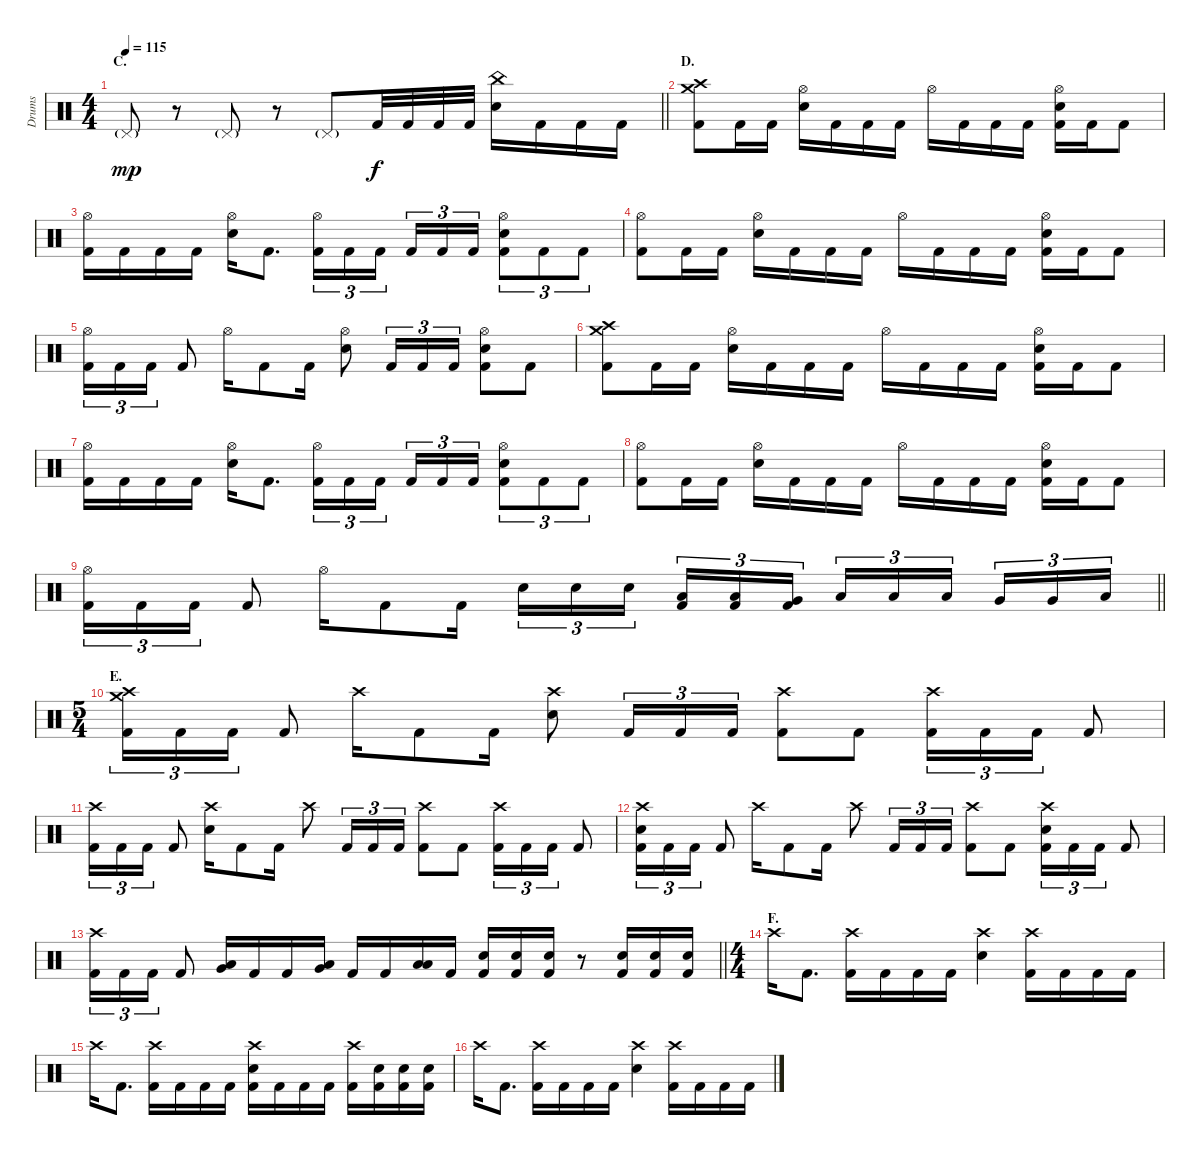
\track ("Drums" "Drums") {instrument percussion}
\staff {score}
\articulation defaults
\ts (4 4)
\section ("" "C.")
\tempo 115
\clef neutral
\barLineRight lightlight
\ks c "Pedal Hi-Hat (hit)"{g}.8{dy mp}
r.8 "Pedal Hi-Hat (hit)"{g}.8 r.8 "Pedal Hi-Hat (hit)"{g}.8 "Kick (hit) 2".32{dy f} "Kick (hit) 2".32 "Kick (hit) 2".32 "Kick (hit) 2".32 ("China (hit)" "Electric Snare (hit)").16 "Kick (hit) 2".16 "Kick (hit) 2".16 "Kick (hit) 2".16 |
\section ("" "D.")
("Crash medium (hit)" "Crash high (hit)" "Kick (hit) 2").8 "Kick (hit) 2".16 "Kick (hit) 2".16 ("Hi-Hat (open)" "Electric Snare (hit)").16 "Kick (hit) 2".16 "Kick (hit) 2".16 "Kick (hit) 2".16 "Hi-Hat (open)".16 "Kick (hit) 2".16 "Kick (hit) 2".16 "Kick (hit) 2".16 ("Hi-Hat (open)" "Electric Snare (hit)" "Kick (hit) 2").16 "Kick (hit) 2".16 "Kick (hit) 2".8 |
("Hi-Hat (open)" "Kick (hit) 2").16 "Kick (hit) 2".16 "Kick (hit) 2".16 "Kick (hit) 2".16 ("Hi-Hat (open)" "Electric Snare (hit)").16 "Kick (hit) 2".8{d} ("Hi-Hat (open)" "Kick (hit) 2").16{tu (3 2)} "Kick (hit) 2".16{tu (3 2)} "Kick (hit) 2".16{tu (3 2) beam splitsecondary} "Kick (hit) 2".16{tu (3 2)} "Kick (hit) 2".16{tu (3 2)} "Kick (hit) 2".16{tu (3 2)} ("Hi-Hat (open)" "Electric Snare (hit)" "Kick (hit) 2").8{tu (3 2)} "Kick (hit) 2".8{tu (3 2)} "Kick (hit) 2".8{tu (3 2)} |
("Hi-Hat (open)" "Kick (hit) 2").8 "Kick (hit) 2".16 "Kick (hit) 2".16 ("Hi-Hat (open)" "Electric Snare (hit)").16 "Kick (hit) 2".16 "Kick (hit) 2".16 "Kick (hit) 2".16 "Hi-Hat (open)".16 "Kick (hit) 2".16 "Kick (hit) 2".16 "Kick (hit) 2".16 ("Hi-Hat (open)" "Electric Snare (hit)" "Kick (hit) 2").16 "Kick (hit) 2".16 "Kick (hit) 2".8 |
("Hi-Hat (open)" "Kick (hit) 2").16{tu (3 2)} "Kick (hit) 2".16{tu (3 2)} "Kick (hit) 2".16{tu (3 2)} "Kick (hit) 2".8 "Hi-Hat (open)".16 "Kick (hit) 2".8 "Kick (hit) 2".16 ("Hi-Hat (open)" "Electric Snare (hit)").8 "Kick (hit) 2".16{tu (3 2)} "Kick (hit) 2".16{tu (3 2)} "Kick (hit) 2".16{tu (3 2)} ("Hi-Hat (open)" "Electric Snare (hit)" "Kick (hit) 2").8 "Kick (hit) 2".8 |
("Crash medium (hit)" "Crash high (hit)" "Kick (hit) 2").8 "Kick (hit) 2".16 "Kick (hit) 2".16 ("Hi-Hat (open)" "Electric Snare (hit)").16 "Kick (hit) 2".16 "Kick (hit) 2".16 "Kick (hit) 2".16 "Hi-Hat (open)".16 "Kick (hit) 2".16 "Kick (hit) 2".16 "Kick (hit) 2".16 ("Hi-Hat (open)" "Electric Snare (hit)" "Kick (hit) 2").16 "Kick (hit) 2".16 "Kick (hit) 2".8 |
("Hi-Hat (open)" "Kick (hit) 2").16 "Kick (hit) 2".16 "Kick (hit) 2".16 "Kick (hit) 2".16 ("Hi-Hat (open)" "Electric Snare (hit)").16 "Kick (hit) 2".8{d} ("Hi-Hat (open)" "Kick (hit) 2").16{tu (3 2)} "Kick (hit) 2".16{tu (3 2)} "Kick (hit) 2".16{tu (3 2) beam splitsecondary} "Kick (hit) 2".16{tu (3 2)} "Kick (hit) 2".16{tu (3 2)} "Kick (hit) 2".16{tu (3 2)} ("Hi-Hat (open)" "Electric Snare (hit)" "Kick (hit) 2").8{tu (3 2)} "Kick (hit) 2".8{tu (3 2)} "Kick (hit) 2".8{tu (3 2)} |
("Hi-Hat (open)" "Kick (hit) 2").8 "Kick (hit) 2".16 "Kick (hit) 2".16 ("Hi-Hat (open)" "Electric Snare (hit)").16 "Kick (hit) 2".16 "Kick (hit) 2".16 "Kick (hit) 2".16 "Hi-Hat (open)".16 "Kick (hit) 2".16 "Kick (hit) 2".16 "Kick (hit) 2".16 ("Hi-Hat (open)" "Electric Snare (hit)" "Kick (hit) 2").16 "Kick (hit) 2".16 "Kick (hit) 2".8 |
\barLineRight lightlight
("Hi-Hat (open)" "Kick (hit) 2").16{tu (3 2)} "Kick (hit) 2".16{tu (3 2)} "Kick (hit) 2".16{tu (3 2)} "Kick (hit) 2".8 "Hi-Hat (open)".16 "Kick (hit) 2".8 "Kick (hit) 2".16 "Electric Snare (hit)".16{tu (3 2)} "Electric Snare (hit)".16{tu (3 2)} "Electric Snare (hit)".16{tu (3 2) beam splitsecondary} ("Low Tom (hit)" "Kick (hit) 2").16{tu (3 2)} ("Low Tom (hit)" "Kick (hit) 2").16{tu (3 2)} ("Very Low Tom (hit)" "Kick (hit) 2").16{tu (3 2)} "Low Tom (hit)".16{tu (3 2)} "Low Tom (hit)".16{tu (3 2)} "Low Tom (hit)".16{tu (3 2) beam splitsecondary} "Very Low Tom (hit)".16{tu (3 2)} "Very Low Tom (hit)".16{tu (3 2)} "Low Floor Tom (hit)".16{tu (3 2)} |
\ts (5 4)
\section ("" "E.")
("Crash medium (hit)" "Crash high (hit)" "Kick (hit) 2").16{tu (3 2)} "Kick (hit) 2".16{tu (3 2)} "Kick (hit) 2".16{tu (3 2)} "Kick (hit) 2".8 "Crash high (hit)".16 "Kick (hit) 2".8 "Kick (hit) 2".16 ("Crash high (hit)" "Electric Snare (hit)").8 "Kick (hit) 2".16{tu (3 2)} "Kick (hit) 2".16{tu (3 2)} "Kick (hit) 2".16{tu (3 2)} ("Crash high (hit)" "Kick (hit) 2").8 "Kick (hit) 2".8 ("Crash high (hit)" "Kick (hit) 2").16{tu (3 2)} "Kick (hit) 2".16{tu (3 2)} "Kick (hit) 2".16{tu (3 2)} "Kick (hit) 2".8 |
("Crash high (hit)" "Kick (hit) 2").16{tu (3 2)} "Kick (hit) 2".16{tu (3 2)} "Kick (hit) 2".16{tu (3 2)} "Kick (hit) 2".8 ("Crash high (hit)" "Electric Snare (hit)").16 "Kick (hit) 2".8 "Kick (hit) 2".16 "Crash high (hit)".8 "Kick (hit) 2".16{tu (3 2)} "Kick (hit) 2".16{tu (3 2)} "Kick (hit) 2".16{tu (3 2)} ("Crash high (hit)" "Kick (hit) 2").8 "Kick (hit) 2".8 ("Crash high (hit)" "Kick (hit) 2").16{tu (3 2)} "Kick (hit) 2".16{tu (3 2)} "Kick (hit) 2".16{tu (3 2)} "Kick (hit) 2".8 |
("Crash high (hit)" "Electric Snare (hit)" "Kick (hit) 2").16{tu (3 2)} "Kick (hit) 2".16{tu (3 2)} "Kick (hit) 2".16{tu (3 2)} "Kick (hit) 2".8 "Crash high (hit)".16 "Kick (hit) 2".8 "Kick (hit) 2".16 "Crash high (hit)".8 "Kick (hit) 2".16{tu (3 2)} "Kick (hit) 2".16{tu (3 2)} "Kick (hit) 2".16{tu (3 2)} ("Crash high (hit)" "Kick (hit) 2").8 "Kick (hit) 2".8 ("Crash high (hit)" "Electric Snare (hit)" "Kick (hit) 2").16{tu (3 2)} "Kick (hit) 2".16{tu (3 2)} "Kick (hit) 2".16{tu (3 2)} "Kick (hit) 2".8 |
\barLineRight lightlight
("Crash high (hit)" "Kick (hit) 2").16{tu (3 2)} "Kick (hit) 2".16{tu (3 2)} "Kick (hit) 2".16{tu (3 2)} "Kick (hit) 2".8 ("Low Tom (hit)" "Very Low Tom (hit)").16{bu 120} "Kick (hit) 2".16 "Kick (hit) 2".16 ("Very Low Tom (hit)" "Low Floor Tom (hit)").16{bu 120} "Kick (hit) 2".16 "Kick (hit) 2".16 ("Low Floor Tom (hit)" "Low Floor Tom (hit)").16{bu 120} "Kick (hit) 2".16 ("Electric Snare (hit)" "Kick (hit) 2").16 ("Electric Snare (hit)" "Kick (hit) 2").16 ("Electric Snare (hit)" "Kick (hit) 2").16 r.8 ("Electric Snare (hit)" "Kick (hit) 2").16 ("Electric Snare (hit)" "Kick (hit) 2").16 ("Electric Snare (hit)" "Kick (hit) 2").16 |
\ts (4 4)
\section ("" "F.")
"Crash high (hit)".16 "Kick (hit) 2".8{d} ("Crash high (hit)" "Kick (hit) 2").16 "Kick (hit) 2".16 "Kick (hit) 2".16 "Kick (hit) 2".16 ("Crash high (hit)" "Electric Snare (hit)").4 ("Crash high (hit)" "Kick (hit) 2").16 "Kick (hit) 2".16 "Kick (hit) 2".16 "Kick (hit) 2".16 |
"Crash high (hit)".16 "Kick (hit) 2".8{d} ("Crash high (hit)" "Kick (hit) 2").16 "Kick (hit) 2".16 "Kick (hit) 2".16 "Kick (hit) 2".16 ("Crash high (hit)" "Electric Snare (hit)" "Kick (hit) 2").16 "Kick (hit) 2".16 "Kick (hit) 2".16 "Kick (hit) 2".16 ("Crash high (hit)" "Kick (hit) 2").16 ("Electric Snare (hit)" "Kick (hit) 2").16 ("Electric Snare (hit)" "Kick (hit) 2").16 ("Electric Snare (hit)" "Kick (hit) 2").16 |
"Crash high (hit)".16 "Kick (hit) 2".8{d} ("Crash high (hit)" "Kick (hit) 2").16 "Kick (hit) 2".16 "Kick (hit) 2".16 "Kick (hit) 2".16 ("Crash high (hit)" "Electric Snare (hit)").4 ("Crash high (hit)" "Kick (hit) 2").16 "Kick (hit) 2".16 "Kick (hit) 2".16 "Kick (hit) 2".16
